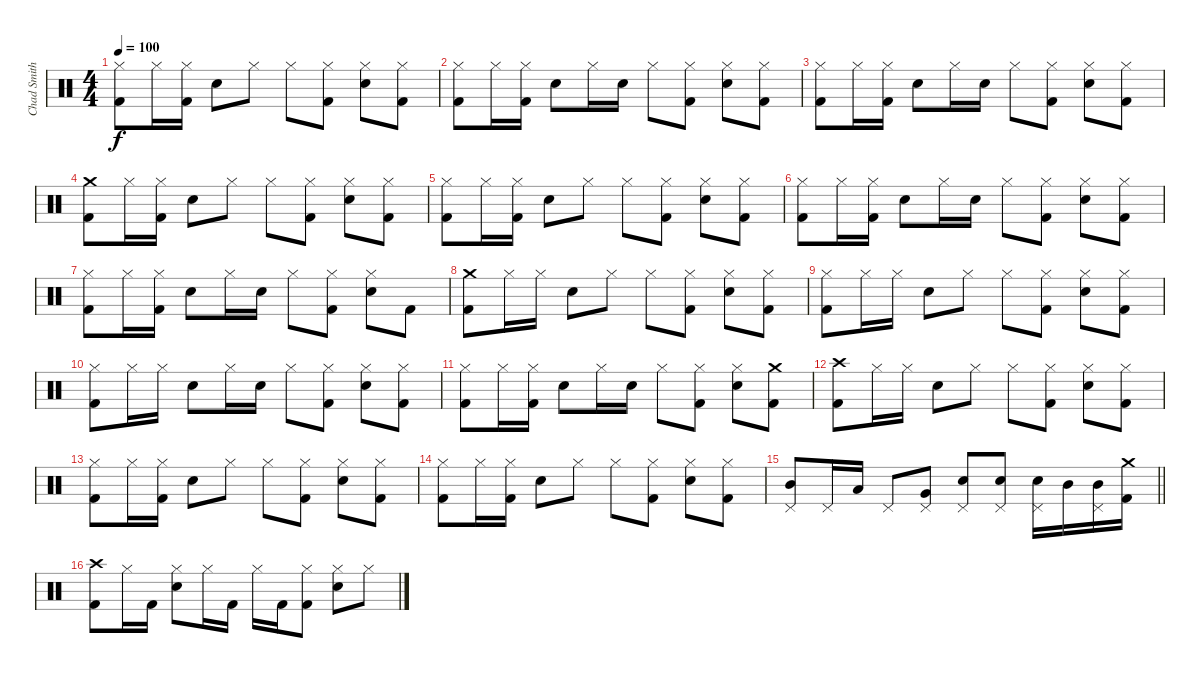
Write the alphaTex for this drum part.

\track ("Chad Smith" "Chad Smith") {instrument percussion}
\staff {score}
\articulation defaults
\ts (4 4)
\tempo 100
\clef neutral
\ks c
("Hi-Hat (closed)" "Kick (hit) 2").8{dy f} "Hi-Hat (closed)".16 ("Hi-Hat (closed)" "Kick (hit) 2").16 "Snare (hit) 2".8 "Hi-Hat (closed)".8 "Hi-Hat (closed)".8 ("Hi-Hat (closed)" "Kick (hit) 2").8 ("Hi-Hat (closed)" "Snare (hit) 2").8 ("Hi-Hat (closed)" "Kick (hit) 2").8 |
("Hi-Hat (closed)" "Kick (hit) 2").8 "Hi-Hat (closed)".16 ("Hi-Hat (closed)" "Kick (hit) 2").16 "Snare (hit) 2".8 "Hi-Hat (closed)".16 "Snare (hit) 2".16 "Hi-Hat (closed)".8 ("Hi-Hat (closed)" "Kick (hit) 2").8 ("Hi-Hat (closed)" "Snare (hit) 2").8 ("Hi-Hat (closed)" "Kick (hit) 2").8 |
("Hi-Hat (closed)" "Kick (hit) 2").8 "Hi-Hat (closed)".16 ("Hi-Hat (closed)" "Kick (hit) 2").16 "Snare (hit) 2".8 "Hi-Hat (closed)".16 "Snare (hit) 2".16 "Hi-Hat (closed)".8 ("Hi-Hat (closed)" "Kick (hit) 2").8 ("Hi-Hat (closed)" "Snare (hit) 2").8 ("Hi-Hat (closed)" "Kick (hit) 2").8 |
("Crash medium (hit)" "Kick (hit) 2").8 "Hi-Hat (closed)".16 ("Hi-Hat (closed)" "Kick (hit) 2").16 "Snare (hit) 2".8 "Hi-Hat (closed)".8 "Hi-Hat (closed)".8 ("Hi-Hat (closed)" "Kick (hit) 2").8 ("Hi-Hat (closed)" "Snare (hit) 2").8 ("Hi-Hat (closed)" "Kick (hit) 2").8 |
("Hi-Hat (closed)" "Kick (hit) 2").8 "Hi-Hat (closed)".16 ("Hi-Hat (closed)" "Kick (hit) 2").16 "Snare (hit) 2".8 "Hi-Hat (closed)".8 "Hi-Hat (closed)".8 ("Hi-Hat (closed)" "Kick (hit) 2").8 ("Hi-Hat (closed)" "Snare (hit) 2").8 ("Hi-Hat (closed)" "Kick (hit) 2").8 |
("Hi-Hat (closed)" "Kick (hit) 2").8 "Hi-Hat (closed)".16 ("Hi-Hat (closed)" "Kick (hit) 2").16 "Snare (hit) 2".8 "Hi-Hat (closed)".16 "Snare (hit) 2".16 "Hi-Hat (closed)".8 ("Hi-Hat (closed)" "Kick (hit) 2").8 ("Hi-Hat (closed)" "Snare (hit) 2").8 ("Hi-Hat (closed)" "Kick (hit) 2").8 |
("Hi-Hat (closed)" "Kick (hit) 2").8 "Hi-Hat (closed)".16 ("Hi-Hat (closed)" "Kick (hit) 2").16 "Snare (hit) 2".8 "Hi-Hat (closed)".16 "Snare (hit) 2".16 "Hi-Hat (closed)".8 ("Hi-Hat (closed)" "Kick (hit) 2").8 ("Hi-Hat (closed)" "Snare (hit) 2").8 "Kick (hit) 2".8 |
("Crash medium (hit)" "Kick (hit) 2").8 "Hi-Hat (closed)".16 "Hi-Hat (closed)".16 "Snare (hit) 2".8 "Hi-Hat (closed)".8 "Hi-Hat (closed)".8 ("Hi-Hat (closed)" "Kick (hit) 2").8 ("Hi-Hat (closed)" "Snare (hit) 2").8 ("Hi-Hat (closed)" "Kick (hit) 2").8 |
("Hi-Hat (closed)" "Kick (hit) 2").8 "Hi-Hat (closed)".16 "Hi-Hat (closed)".16 "Snare (hit) 2".8 "Hi-Hat (closed)".8 "Hi-Hat (closed)".8 ("Hi-Hat (closed)" "Kick (hit) 2").8 ("Hi-Hat (closed)" "Snare (hit) 2").8 ("Hi-Hat (closed)" "Kick (hit) 2").8 |
("Hi-Hat (closed)" "Kick (hit) 2").8 "Hi-Hat (closed)".16 "Hi-Hat (closed)".16 "Snare (hit) 2".8 "Hi-Hat (closed)".16 "Snare (hit) 2".16 "Hi-Hat (closed)".8 ("Hi-Hat (closed)" "Kick (hit) 2").8 ("Hi-Hat (closed)" "Snare (hit) 2").8 ("Hi-Hat (closed)" "Kick (hit) 2").8 |
("Hi-Hat (closed)" "Kick (hit) 2").8 "Hi-Hat (closed)".16 ("Hi-Hat (closed)" "Kick (hit) 2").16 "Snare (hit) 2".8 "Hi-Hat (closed)".16 "Snare (hit) 2".16 "Hi-Hat (closed)".8 ("Hi-Hat (closed)" "Kick (hit) 2").8 ("Hi-Hat (closed)" "Snare (hit) 2").8 ("Crash medium (hit)" "Kick (hit) 2").8 |
("Crash high (hit)" "Kick (hit) 2").8 "Hi-Hat (closed)".16 "Hi-Hat (closed)".16 "Snare (hit) 2".8 "Hi-Hat (closed)".8 "Hi-Hat (closed)".8 ("Hi-Hat (closed)" "Kick (hit) 2").8 ("Hi-Hat (closed)" "Snare (hit) 2").8 ("Hi-Hat (closed)" "Kick (hit) 2").8 |
("Hi-Hat (closed)" "Kick (hit) 2").8 "Hi-Hat (closed)".16 ("Hi-Hat (closed)" "Kick (hit) 2").16 "Snare (hit) 2".8 "Hi-Hat (closed)".8 "Hi-Hat (closed)".8 ("Hi-Hat (closed)" "Kick (hit) 2").8 ("Hi-Hat (closed)" "Snare (hit) 2").8 ("Hi-Hat (closed)" "Kick (hit) 2").8 |
("Hi-Hat (closed)" "Kick (hit) 2").8 "Hi-Hat (closed)".16 ("Hi-Hat (closed)" "Kick (hit) 2").16 "Snare (hit) 2".8 "Hi-Hat (closed)".8 "Hi-Hat (closed)".8 ("Hi-Hat (closed)" "Kick (hit) 2").8 ("Hi-Hat (closed)" "Snare (hit) 2").8 ("Hi-Hat (closed)" "Kick (hit) 2").8 |
\barLineRight lightlight
("Mid Tom (hit)" "Pedal Hi-Hat (hit)").8 "Pedal Hi-Hat (hit)".16 "Low Tom (hit)".16 "Pedal Hi-Hat (hit)".8 ("Very Low Tom (hit)" "Pedal Hi-Hat (hit)").8 ("Snare (hit) 2" "Pedal Hi-Hat (hit)").8 ("Snare (hit) 2" "Pedal Hi-Hat (hit)").8 ("Snare (hit) 2" "Pedal Hi-Hat (hit)").16 "Mid Tom (hit)".16 ("Mid Tom (hit)" "Pedal Hi-Hat (hit)").16 ("Crash medium (hit)" "Kick (hit) 2").16 |
("Crash high (hit)" "Kick (hit) 2").8 "Hi-Hat (closed)".16 "Kick (hit) 2".16 ("Hi-Hat (closed)" "Snare (hit) 2").8 "Hi-Hat (closed)".16 "Kick (hit) 2".16 "Hi-Hat (closed)".16 "Kick (hit) 2".16 ("Hi-Hat (closed)" "Kick (hit) 2").8 ("Hi-Hat (closed)" "Snare (hit) 2").8 "Hi-Hat (closed)".8
